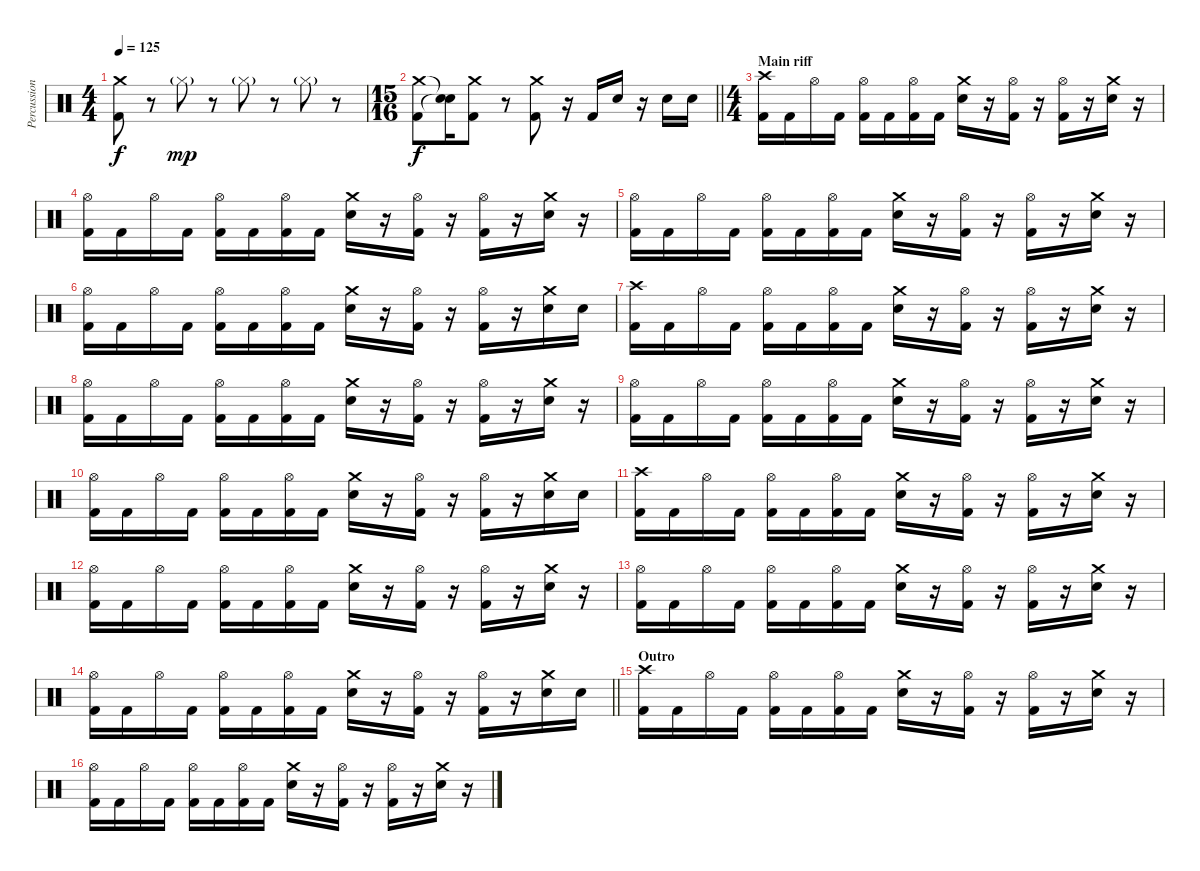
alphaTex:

\track ("Percussion" "Percussion") {instrument percussion}
\staff {score}
\articulation defaults
\ts (4 4)
\tempo 125
\clef neutral
\ks c
("Crash medium (hit)" "Kick (hit) 2").8{dy f} r.8 "Hi-Hat (closed)"{g}.8{dy mp} r.8 "Hi-Hat (closed)"{g}.8 r.8 "Hi-Hat (closed)"{g}.8 r.8 |
\ts (15 16)
\barLineRight lightlight
("Crash medium (hit)" "Kick (hit) 2").8{dy f} ("Snare (hit)"{t} "Snare (hit)"{t}).16 ("Crash medium (hit)" "Kick (hit) 2").8 r.8 ("Crash medium (hit)" "Kick (hit) 2").8 r.16 "Kick (hit) 2".16 "Electric Snare (hit)".16 r.16 "Electric Snare (hit)".16 "Electric Snare (hit)".16 |
\ts (4 4)
\section ("" "Main riff")
("Crash high (hit)" "Kick (hit) 2").16 "Kick (hit) 2".16 "Hi-Hat (open)".16 "Kick (hit) 2".16 ("Hi-Hat (open)" "Kick (hit) 2").16 "Kick (hit) 2".16 ("Hi-Hat (open)" "Kick (hit) 2").16 "Kick (hit) 2".16 ("Crash medium (hit)" "Electric Snare (hit)").16 r.16 ("Hi-Hat (open)" "Kick (hit) 2").16 r.16 ("Hi-Hat (open)" "Kick (hit) 2").16 r.16 ("Crash medium (hit)" "Electric Snare (hit)").16 r.16 |
("Hi-Hat (open)" "Kick (hit) 2").16 "Kick (hit) 2".16 "Hi-Hat (open)".16 "Kick (hit) 2".16 ("Hi-Hat (open)" "Kick (hit) 2").16 "Kick (hit) 2".16 ("Hi-Hat (open)" "Kick (hit) 2").16 "Kick (hit) 2".16 ("Crash medium (hit)" "Electric Snare (hit)").16 r.16 ("Hi-Hat (open)" "Kick (hit) 2").16 r.16 ("Hi-Hat (open)" "Kick (hit) 2").16 r.16 ("Crash medium (hit)" "Electric Snare (hit)").16 r.16 |
("Hi-Hat (open)" "Kick (hit) 2").16 "Kick (hit) 2".16 "Hi-Hat (open)".16 "Kick (hit) 2".16 ("Hi-Hat (open)" "Kick (hit) 2").16 "Kick (hit) 2".16 ("Hi-Hat (open)" "Kick (hit) 2").16 "Kick (hit) 2".16 ("Crash medium (hit)" "Electric Snare (hit)").16 r.16 ("Hi-Hat (open)" "Kick (hit) 2").16 r.16 ("Hi-Hat (open)" "Kick (hit) 2").16 r.16 ("Crash medium (hit)" "Electric Snare (hit)").16 r.16 |
("Hi-Hat (open)" "Kick (hit) 2").16 "Kick (hit) 2".16 "Hi-Hat (open)".16 "Kick (hit) 2".16 ("Hi-Hat (open)" "Kick (hit) 2").16 "Kick (hit) 2".16 ("Hi-Hat (open)" "Kick (hit) 2").16 "Kick (hit) 2".16 ("Crash medium (hit)" "Electric Snare (hit)").16 r.16 ("Hi-Hat (open)" "Kick (hit) 2").16 r.16 ("Hi-Hat (open)" "Kick (hit) 2").16 r.16 ("Crash medium (hit)" "Electric Snare (hit)").16 "Electric Snare (hit)".16 |
("Crash high (hit)" "Kick (hit) 2").16 "Kick (hit) 2".16 "Hi-Hat (open)".16 "Kick (hit) 2".16 ("Hi-Hat (open)" "Kick (hit) 2").16 "Kick (hit) 2".16 ("Hi-Hat (open)" "Kick (hit) 2").16 "Kick (hit) 2".16 ("Crash medium (hit)" "Electric Snare (hit)").16 r.16 ("Hi-Hat (open)" "Kick (hit) 2").16 r.16 ("Hi-Hat (open)" "Kick (hit) 2").16 r.16 ("Crash medium (hit)" "Electric Snare (hit)").16 r.16 |
("Hi-Hat (open)" "Kick (hit) 2").16 "Kick (hit) 2".16 "Hi-Hat (open)".16 "Kick (hit) 2".16 ("Hi-Hat (open)" "Kick (hit) 2").16 "Kick (hit) 2".16 ("Hi-Hat (open)" "Kick (hit) 2").16 "Kick (hit) 2".16 ("Crash medium (hit)" "Electric Snare (hit)").16 r.16 ("Hi-Hat (open)" "Kick (hit) 2").16 r.16 ("Hi-Hat (open)" "Kick (hit) 2").16 r.16 ("Crash medium (hit)" "Electric Snare (hit)").16 r.16 |
("Hi-Hat (open)" "Kick (hit) 2").16 "Kick (hit) 2".16 "Hi-Hat (open)".16 "Kick (hit) 2".16 ("Hi-Hat (open)" "Kick (hit) 2").16 "Kick (hit) 2".16 ("Hi-Hat (open)" "Kick (hit) 2").16 "Kick (hit) 2".16 ("Crash medium (hit)" "Electric Snare (hit)").16 r.16 ("Hi-Hat (open)" "Kick (hit) 2").16 r.16 ("Hi-Hat (open)" "Kick (hit) 2").16 r.16 ("Crash medium (hit)" "Electric Snare (hit)").16 r.16 |
("Hi-Hat (open)" "Kick (hit) 2").16 "Kick (hit) 2".16 "Hi-Hat (open)".16 "Kick (hit) 2".16 ("Hi-Hat (open)" "Kick (hit) 2").16 "Kick (hit) 2".16 ("Hi-Hat (open)" "Kick (hit) 2").16 "Kick (hit) 2".16 ("Crash medium (hit)" "Electric Snare (hit)").16 r.16 ("Hi-Hat (open)" "Kick (hit) 2").16 r.16 ("Hi-Hat (open)" "Kick (hit) 2").16 r.16 ("Crash medium (hit)" "Electric Snare (hit)").16 "Electric Snare (hit)".16 |
("Crash high (hit)" "Kick (hit) 2").16 "Kick (hit) 2".16 "Hi-Hat (open)".16 "Kick (hit) 2".16 ("Hi-Hat (open)" "Kick (hit) 2").16 "Kick (hit) 2".16 ("Hi-Hat (open)" "Kick (hit) 2").16 "Kick (hit) 2".16 ("Crash medium (hit)" "Electric Snare (hit)").16 r.16 ("Hi-Hat (open)" "Kick (hit) 2").16 r.16 ("Hi-Hat (open)" "Kick (hit) 2").16 r.16 ("Crash medium (hit)" "Electric Snare (hit)").16 r.16 |
("Hi-Hat (open)" "Kick (hit) 2").16 "Kick (hit) 2".16 "Hi-Hat (open)".16 "Kick (hit) 2".16 ("Hi-Hat (open)" "Kick (hit) 2").16 "Kick (hit) 2".16 ("Hi-Hat (open)" "Kick (hit) 2").16 "Kick (hit) 2".16 ("Crash medium (hit)" "Electric Snare (hit)").16 r.16 ("Hi-Hat (open)" "Kick (hit) 2").16 r.16 ("Hi-Hat (open)" "Kick (hit) 2").16 r.16 ("Crash medium (hit)" "Electric Snare (hit)").16 r.16 |
("Hi-Hat (open)" "Kick (hit) 2").16 "Kick (hit) 2".16 "Hi-Hat (open)".16 "Kick (hit) 2".16 ("Hi-Hat (open)" "Kick (hit) 2").16 "Kick (hit) 2".16 ("Hi-Hat (open)" "Kick (hit) 2").16 "Kick (hit) 2".16 ("Crash medium (hit)" "Electric Snare (hit)").16 r.16 ("Hi-Hat (open)" "Kick (hit) 2").16 r.16 ("Hi-Hat (open)" "Kick (hit) 2").16 r.16 ("Crash medium (hit)" "Electric Snare (hit)").16 r.16 |
\barLineRight lightlight
("Hi-Hat (open)" "Kick (hit) 2").16 "Kick (hit) 2".16 "Hi-Hat (open)".16 "Kick (hit) 2".16 ("Hi-Hat (open)" "Kick (hit) 2").16 "Kick (hit) 2".16 ("Hi-Hat (open)" "Kick (hit) 2").16 "Kick (hit) 2".16 ("Crash medium (hit)" "Electric Snare (hit)").16 r.16 ("Hi-Hat (open)" "Kick (hit) 2").16 r.16 ("Hi-Hat (open)" "Kick (hit) 2").16 r.16 ("Crash medium (hit)" "Electric Snare (hit)").16 "Electric Snare (hit)".16 |
\section ("" "Outro")
("Crash high (hit)" "Kick (hit) 2").16{volume 0} "Kick (hit) 2".16 "Hi-Hat (open)".16 "Kick (hit) 2".16 ("Hi-Hat (open)" "Kick (hit) 2").16 "Kick (hit) 2".16 ("Hi-Hat (open)" "Kick (hit) 2").16 "Kick (hit) 2".16 ("Crash medium (hit)" "Electric Snare (hit)").16 r.16 ("Hi-Hat (open)" "Kick (hit) 2").16 r.16 ("Hi-Hat (open)" "Kick (hit) 2").16 r.16 ("Crash medium (hit)" "Electric Snare (hit)").16 r.16 |
("Hi-Hat (open)" "Kick (hit) 2").16 "Kick (hit) 2".16 "Hi-Hat (open)".16 "Kick (hit) 2".16 ("Hi-Hat (open)" "Kick (hit) 2").16 "Kick (hit) 2".16 ("Hi-Hat (open)" "Kick (hit) 2").16 "Kick (hit) 2".16 ("Crash medium (hit)" "Electric Snare (hit)").16 r.16 ("Hi-Hat (open)" "Kick (hit) 2").16 r.16 ("Hi-Hat (open)" "Kick (hit) 2").16 r.16 ("Crash medium (hit)" "Electric Snare (hit)").16 r.16
